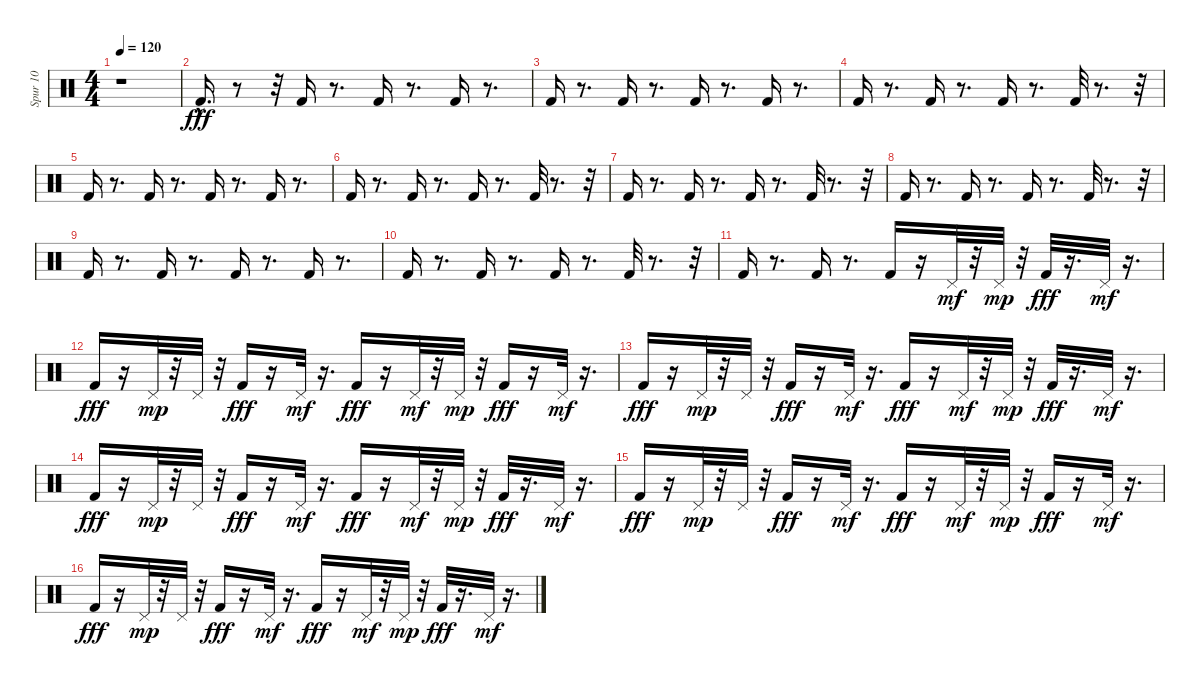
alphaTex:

\track ("Spur 10" "Spur 10") {instrument percussion}
\staff {score}
\articulation defaults
\ts (4 4)
\tempo 120
\clef neutral
\ks c
r.1{dy fff} |
"Kick (hit) 2"{hac}.16{d} r.8 r.32 "Kick (hit) 2".16 r.8{d} "Kick (hit) 2".16 r.8{d} "Kick (hit) 2".16 r.8{d} |
"Kick (hit) 2".16 r.8{d} "Kick (hit) 2".16 r.8{d} "Kick (hit) 2".16 r.8{d} "Kick (hit) 2".16 r.8{d} |
"Kick (hit) 2".16 r.8{d} "Kick (hit) 2".16 r.8{d} "Kick (hit) 2".16 r.8{d} "Kick (hit) 2".32 r.8{d} r.32 |
"Kick (hit) 2".16 r.8{d} "Kick (hit) 2".16 r.8{d} "Kick (hit) 2".16 r.8{d} "Kick (hit) 2".16 r.8{d} |
"Kick (hit) 2".16 r.8{d} "Kick (hit) 2".16 r.8{d} "Kick (hit) 2".16 r.8{d} "Kick (hit) 2".32 r.8{d} r.32 |
"Kick (hit) 2".16 r.8{d} "Kick (hit) 2".16 r.8{d} "Kick (hit) 2".16 r.8{d} "Kick (hit) 2".32 r.8{d} r.32 |
"Kick (hit) 2".16 r.8{d} "Kick (hit) 2".16 r.8{d} "Kick (hit) 2".16 r.8{d} "Kick (hit) 2".32 r.8{d} r.32 |
"Kick (hit) 2".16 r.8{d} "Kick (hit) 2".16 r.8{d} "Kick (hit) 2".16 r.8{d} "Kick (hit) 2".16 r.8{d} |
"Kick (hit) 2".16 r.8{d} "Kick (hit) 2".16 r.8{d} "Kick (hit) 2".16 r.8{d} "Kick (hit) 2".32 r.8{d} r.32 |
"Kick (hit) 2".16 r.8{d} "Kick (hit) 2".16 r.8{d} "Kick (hit) 2".16 r.16 "Pedal Hi-Hat (hit)".32{dy mf} r.32 "Pedal Hi-Hat (hit)".32{dy mp} r.32 "Kick (hit) 2".32{dy fff} r.16{d} "Pedal Hi-Hat (hit)".32{dy mf} r.16{d} |
"Kick (hit) 2".16{dy fff} r.16 "Pedal Hi-Hat (hit)".32{dy mp} r.32 "Pedal Hi-Hat (hit)".32 r.32 "Kick (hit) 2".16{dy fff} r.16 "Pedal Hi-Hat (hit)".32{dy mf} r.16{d} "Kick (hit) 2".16{dy fff} r.16 "Pedal Hi-Hat (hit)".32{dy mf} r.32 "Pedal Hi-Hat (hit)".32{dy mp} r.32 "Kick (hit) 2".16{dy fff} r.16 "Pedal Hi-Hat (hit)".32{dy mf} r.16{d} |
"Kick (hit) 2".16{dy fff} r.16 "Pedal Hi-Hat (hit)".32{dy mp} r.32 "Pedal Hi-Hat (hit)".32 r.32 "Kick (hit) 2".16{dy fff} r.16 "Pedal Hi-Hat (hit)".32{dy mf} r.16{d} "Kick (hit) 2".16{dy fff} r.16 "Pedal Hi-Hat (hit)".32{dy mf} r.32 "Pedal Hi-Hat (hit)".32{dy mp} r.32 "Kick (hit) 2".32{dy fff} r.16{d} "Pedal Hi-Hat (hit)".32{dy mf} r.16{d} |
"Kick (hit) 2".16{dy fff} r.16 "Pedal Hi-Hat (hit)".32{dy mp} r.32 "Pedal Hi-Hat (hit)".32 r.32 "Kick (hit) 2".16{dy fff} r.16 "Pedal Hi-Hat (hit)".32{dy mf} r.16{d} "Kick (hit) 2".16{dy fff} r.16 "Pedal Hi-Hat (hit)".32{dy mf} r.32 "Pedal Hi-Hat (hit)".32{dy mp} r.32 "Kick (hit) 2".32{dy fff} r.16{d} "Pedal Hi-Hat (hit)".32{dy mf} r.16{d} |
"Kick (hit) 2".16{dy fff} r.16 "Pedal Hi-Hat (hit)".32{dy mp} r.32 "Pedal Hi-Hat (hit)".32 r.32 "Kick (hit) 2".16{dy fff} r.16 "Pedal Hi-Hat (hit)".32{dy mf} r.16{d} "Kick (hit) 2".16{dy fff} r.16 "Pedal Hi-Hat (hit)".32{dy mf} r.32 "Pedal Hi-Hat (hit)".32{dy mp} r.32 "Kick (hit) 2".16{dy fff} r.16 "Pedal Hi-Hat (hit)".32{dy mf} r.16{d} |
"Kick (hit) 2".16{dy fff} r.16 "Pedal Hi-Hat (hit)".32{dy mp} r.32 "Pedal Hi-Hat (hit)".32 r.32 "Kick (hit) 2".16{dy fff} r.16 "Pedal Hi-Hat (hit)".32{dy mf} r.16{d} "Kick (hit) 2".16{dy fff} r.16 "Pedal Hi-Hat (hit)".32{dy mf} r.32 "Pedal Hi-Hat (hit)".32{dy mp} r.32 "Kick (hit) 2".32{dy fff} r.16{d} "Pedal Hi-Hat (hit)".32{dy mf} r.16{d}
